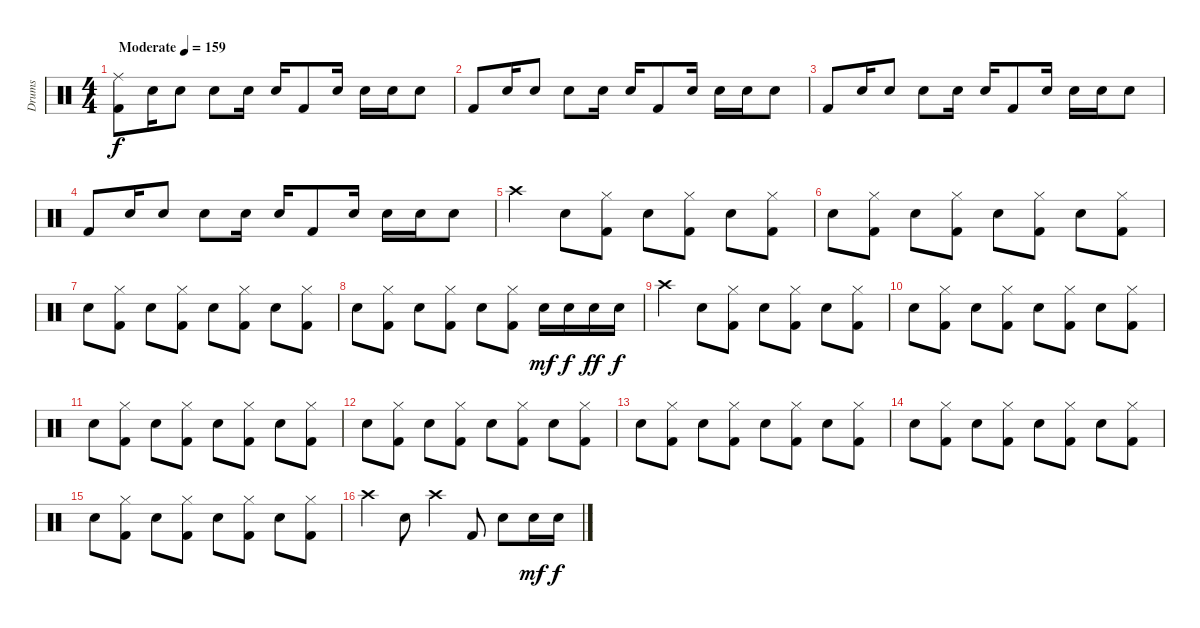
\track ("Drums" "Drums") {instrument percussion}
\staff {score}
\articulation defaults
\ts (4 4)
\tempo (159 "Moderate")
\clef neutral
\ks c
("Ride (middle)" "Kick (hit) 2").8{dy f} "Snare (hit) 2".16 "Snare (hit) 2".8 "Snare (hit) 2".8 "Snare (hit) 2".16 "Snare (hit) 2".16 "Kick (hit) 2".8 "Snare (hit) 2".16 "Snare (hit) 2".16 "Snare (hit) 2".16 "Snare (hit) 2".8 |
"Kick (hit) 2".8 "Snare (hit) 2".16 "Snare (hit) 2".8 "Snare (hit) 2".8 "Snare (hit) 2".16 "Snare (hit) 2".16 "Kick (hit) 2".8 "Snare (hit) 2".16 "Snare (hit) 2".16 "Snare (hit) 2".16 "Snare (hit) 2".8 |
"Kick (hit) 2".8 "Snare (hit) 2".16 "Snare (hit) 2".8 "Snare (hit) 2".8 "Snare (hit) 2".16 "Snare (hit) 2".16 "Kick (hit) 2".8 "Snare (hit) 2".16 "Snare (hit) 2".16 "Snare (hit) 2".16 "Snare (hit) 2".8 |
"Kick (hit) 2".8 "Snare (hit) 2".16 "Snare (hit) 2".8 "Snare (hit) 2".8 "Snare (hit) 2".16 "Snare (hit) 2".16 "Kick (hit) 2".8 "Snare (hit) 2".16 "Snare (hit) 2".16 "Snare (hit) 2".16 "Snare (hit) 2".8 |
"Crash high (hit)".4 "Electric Snare (hit)".8 ("Kick (hit) 2" "Hi-Hat (closed)").8 "Electric Snare (hit)".8 ("Kick (hit) 2" "Hi-Hat (closed)").8 "Electric Snare (hit)".8 ("Kick (hit) 2" "Hi-Hat (closed)").8 |
"Electric Snare (hit)".8 ("Kick (hit) 2" "Hi-Hat (closed)").8 "Electric Snare (hit)".8 ("Kick (hit) 2" "Hi-Hat (closed)").8 "Electric Snare (hit)".8 ("Kick (hit) 2" "Hi-Hat (closed)").8 "Electric Snare (hit)".8 ("Kick (hit) 2" "Hi-Hat (closed)").8 |
"Electric Snare (hit)".8 ("Kick (hit) 2" "Hi-Hat (closed)").8 "Electric Snare (hit)".8 ("Kick (hit) 2" "Hi-Hat (closed)").8 "Electric Snare (hit)".8 ("Kick (hit) 2" "Hi-Hat (closed)").8 "Electric Snare (hit)".8 ("Kick (hit) 2" "Hi-Hat (closed)").8 |
"Electric Snare (hit)".8 ("Kick (hit) 2" "Hi-Hat (closed)").8 "Electric Snare (hit)".8 ("Kick (hit) 2" "Hi-Hat (closed)").8 "Electric Snare (hit)".8 ("Kick (hit) 2" "Hi-Hat (closed)").8 "Electric Snare (hit)".16{dy mf} "Electric Snare (hit)".16{dy f} "Electric Snare (hit)".16{dy ff} "Electric Snare (hit)".16{dy f} |
"Crash high (hit)".4 "Electric Snare (hit)".8 ("Kick (hit) 2" "Hi-Hat (closed)").8 "Electric Snare (hit)".8 ("Kick (hit) 2" "Hi-Hat (closed)").8 "Electric Snare (hit)".8 ("Kick (hit) 2" "Hi-Hat (closed)").8 |
"Electric Snare (hit)".8 ("Kick (hit) 2" "Hi-Hat (closed)").8 "Electric Snare (hit)".8 ("Kick (hit) 2" "Hi-Hat (closed)").8 "Electric Snare (hit)".8 ("Kick (hit) 2" "Hi-Hat (closed)").8 "Electric Snare (hit)".8 ("Kick (hit) 2" "Hi-Hat (closed)").8 |
"Electric Snare (hit)".8 ("Kick (hit) 2" "Hi-Hat (closed)").8 "Electric Snare (hit)".8 ("Kick (hit) 2" "Hi-Hat (closed)").8 "Electric Snare (hit)".8 ("Kick (hit) 2" "Hi-Hat (closed)").8 "Electric Snare (hit)".8 ("Kick (hit) 2" "Hi-Hat (closed)").8 |
"Electric Snare (hit)".8 ("Kick (hit) 2" "Hi-Hat (closed)").8 "Electric Snare (hit)".8 ("Kick (hit) 2" "Hi-Hat (closed)").8 "Electric Snare (hit)".8 ("Kick (hit) 2" "Hi-Hat (closed)").8 "Electric Snare (hit)".8 ("Kick (hit) 2" "Hi-Hat (closed)").8 |
"Electric Snare (hit)".8 ("Kick (hit) 2" "Hi-Hat (closed)").8 "Electric Snare (hit)".8 ("Kick (hit) 2" "Hi-Hat (closed)").8 "Electric Snare (hit)".8 ("Kick (hit) 2" "Hi-Hat (closed)").8 "Electric Snare (hit)".8 ("Kick (hit) 2" "Hi-Hat (closed)").8 |
"Electric Snare (hit)".8 ("Kick (hit) 2" "Hi-Hat (closed)").8 "Electric Snare (hit)".8 ("Kick (hit) 2" "Hi-Hat (closed)").8 "Electric Snare (hit)".8 ("Kick (hit) 2" "Hi-Hat (closed)").8 "Electric Snare (hit)".8 ("Kick (hit) 2" "Hi-Hat (closed)").8 |
"Electric Snare (hit)".8 ("Kick (hit) 2" "Hi-Hat (closed)").8 "Electric Snare (hit)".8 ("Kick (hit) 2" "Hi-Hat (closed)").8 "Electric Snare (hit)".8 ("Kick (hit) 2" "Hi-Hat (closed)").8 "Electric Snare (hit)".8 ("Kick (hit) 2" "Hi-Hat (closed)").8 |
"Crash high (hit)".4 "Electric Snare (hit)".8 "Crash high (hit)".4 "Kick (hit) 2".8 "Electric Snare (hit)".8 "Electric Snare (hit)".16{dy mf} "Electric Snare (hit)".16{dy f}
